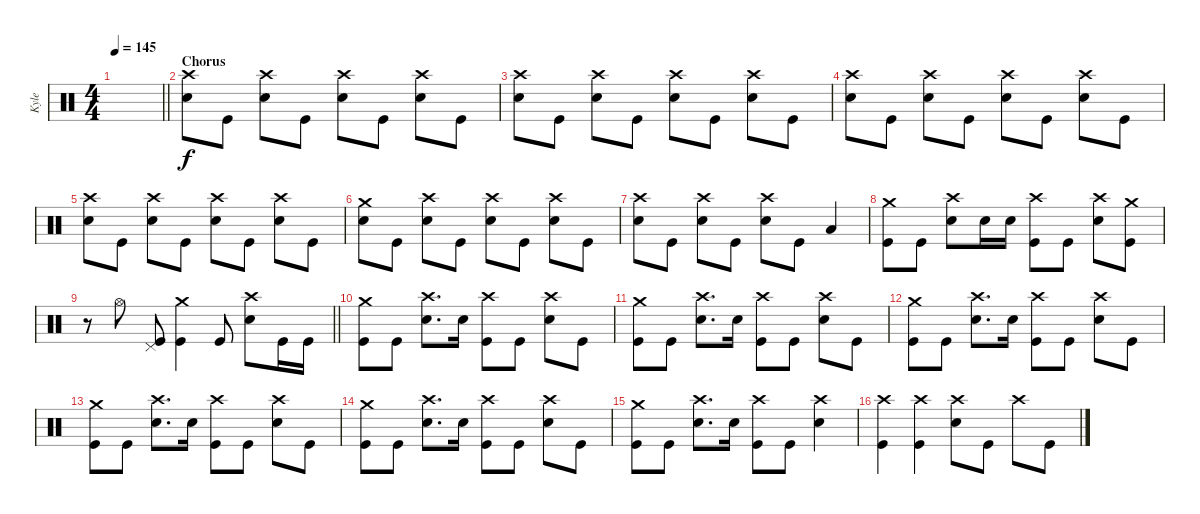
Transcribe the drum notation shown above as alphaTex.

\track ("Kyle" "Kyle") {instrument percussion}
\staff {score}
\articulation defaults
\ts (4 4)
\tempo 145
\clef neutral
\barLineRight lightlight
\ks c
|
\section ("" "Chorus")
("Crash high (hit)" "Electric Snare (hit)").8 "Kick (hit)".8 ("Crash high (hit)" "Electric Snare (hit)").8 "Kick (hit)".8 ("Crash high (hit)" "Electric Snare (hit)").8 "Kick (hit)".8 ("Crash high (hit)" "Electric Snare (hit)").8 "Kick (hit)".8 |
("Crash high (hit)" "Electric Snare (hit)").8 "Kick (hit)".8 ("Crash high (hit)" "Electric Snare (hit)").8 "Kick (hit)".8 ("Crash high (hit)" "Electric Snare (hit)").8 "Kick (hit)".8 ("Crash high (hit)" "Electric Snare (hit)").8 "Kick (hit)".8 |
("Crash high (hit)" "Electric Snare (hit)").8 "Kick (hit)".8 ("Crash high (hit)" "Electric Snare (hit)").8 "Kick (hit)".8 ("Crash high (hit)" "Electric Snare (hit)").8 "Kick (hit)".8 ("Crash high (hit)" "Electric Snare (hit)").8 "Kick (hit)".8 |
("Crash high (hit)" "Electric Snare (hit)").8 "Kick (hit)".8 ("Crash high (hit)" "Electric Snare (hit)").8 "Kick (hit)".8 ("Crash high (hit)" "Electric Snare (hit)").8 "Kick (hit)".8 ("Crash high (hit)" "Electric Snare (hit)").8 "Kick (hit)".8 |
("Crash medium (hit)" "Electric Snare (hit)").8 "Kick (hit)".8 ("Crash high (hit)" "Electric Snare (hit)").8 "Kick (hit)".8 ("Crash high (hit)" "Electric Snare (hit)").8 "Kick (hit)".8 ("Crash high (hit)" "Electric Snare (hit)").8 "Kick (hit)".8 |
("Crash high (hit)" "Electric Snare (hit)").8 "Kick (hit)".8 ("Crash high (hit)" "Electric Snare (hit)").8 "Kick (hit)".8 ("Crash high (hit)" "Electric Snare (hit)").8 "Kick (hit)".8 "Low Floor Tom (hit)".4 |
("Crash medium (hit)" "Kick (hit)").8 "Kick (hit)".8 ("Crash high (hit)" "Electric Snare (hit)").8 "Electric Snare (hit)".16 "Electric Snare (hit)".16 ("Crash high (hit)" "Kick (hit)").8 "Kick (hit)".8 ("Crash high (hit)" "Electric Snare (hit)").8 ("Crash medium (hit)" "Kick (hit)").8 |
\barLineRight lightlight
r.8 "Hi-Hat (open)".8 ("Pedal Hi-Hat (hit)" "Kick (hit)").8 ("Crash medium (hit)" "Kick (hit)").4 "Kick (hit)".8 ("Electric Snare (hit)" "Crash high (hit)").8 "Kick (hit)".16 "Kick (hit)".16 |
("Crash medium (hit)" "Kick (hit)").8 "Kick (hit)".8 ("Crash high (hit)" "Electric Snare (hit)").8{d} "Electric Snare (hit)".16 ("Crash high (hit)" "Kick (hit)").8 "Kick (hit)".8 ("Crash high (hit)" "Electric Snare (hit)").8 "Kick (hit)".8 |
("Crash medium (hit)" "Kick (hit)").8 "Kick (hit)".8 ("Crash high (hit)" "Electric Snare (hit)").8{d} "Electric Snare (hit)".16 ("Crash high (hit)" "Kick (hit)").8 "Kick (hit)".8 ("Crash high (hit)" "Electric Snare (hit)").8 "Kick (hit)".8 |
("Crash medium (hit)" "Kick (hit)").8 "Kick (hit)".8 ("Crash high (hit)" "Electric Snare (hit)").8{d} "Electric Snare (hit)".16 ("Crash high (hit)" "Kick (hit)").8 "Kick (hit)".8 ("Crash high (hit)" "Electric Snare (hit)").8 "Kick (hit)".8 |
("Crash medium (hit)" "Kick (hit)").8 "Kick (hit)".8 ("Crash high (hit)" "Electric Snare (hit)").8{d} "Electric Snare (hit)".16 ("Crash high (hit)" "Kick (hit)").8 "Kick (hit)".8 ("Crash high (hit)" "Electric Snare (hit)").8 "Kick (hit)".8 |
("Crash medium (hit)" "Kick (hit)").8 "Kick (hit)".8 ("Crash high (hit)" "Electric Snare (hit)").8{d} "Electric Snare (hit)".16 ("Crash high (hit)" "Kick (hit)").8 "Kick (hit)".8 ("Crash high (hit)" "Electric Snare (hit)").8 "Kick (hit)".8 |
("Crash medium (hit)" "Kick (hit)").8 "Kick (hit)".8 ("Crash high (hit)" "Electric Snare (hit)").8{d} "Electric Snare (hit)".16 ("Crash high (hit)" "Kick (hit)").8 "Kick (hit)".8 ("Crash high (hit)" "Electric Snare (hit)").4 |
("Crash high (hit)" "Kick (hit)").4 ("Crash high (hit)" "Kick (hit)").4 ("Crash high (hit)" "Electric Snare (hit)").8 "Kick (hit)".8 "Crash high (hit)".8 "Kick (hit)".8
